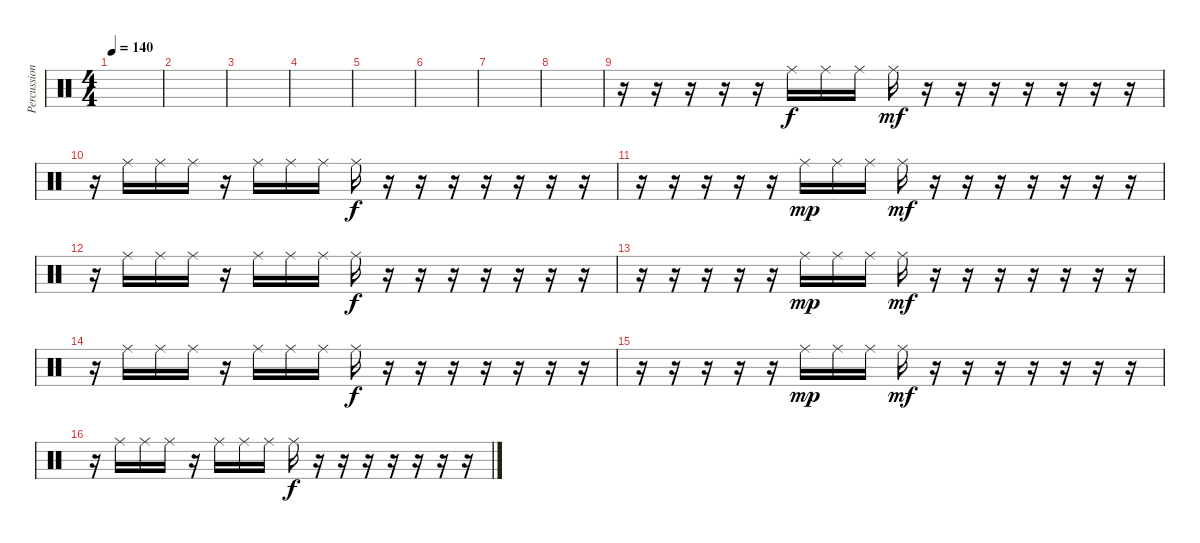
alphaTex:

\track ("Percussions" "Percussion") {instrument percussion}
\staff {score}
\articulation defaults
\ts (4 4)
\tempo 140
\clef neutral
\ks c
|
|
|
|
|
|
|
|
r.16 r.16 r.16 r.16 r.16 "Ride (middle)".16 "Ride (middle)".16 "Ride (middle)".16 "Ride (middle)".16{dy mf} r.16 r.16 r.16 r.16 r.16 r.16 r.16 |
r.16 "Ride (middle)".16 "Ride (middle)".16 "Ride (middle)".16 r.16 "Ride (middle)".16 "Ride (middle)".16 "Ride (middle)".16 "Ride (middle)".16{dy f} r.16 r.16 r.16 r.16 r.16 r.16 r.16 |
r.16 r.16 r.16 r.16 r.16 "Ride (middle)".16{dy mp} "Ride (middle)".16 "Ride (middle)".16 "Ride (middle)".16{dy mf} r.16 r.16 r.16 r.16 r.16 r.16 r.16 |
r.16 "Ride (middle)".16 "Ride (middle)".16 "Ride (middle)".16 r.16 "Ride (middle)".16 "Ride (middle)".16 "Ride (middle)".16 "Ride (middle)".16{dy f} r.16 r.16 r.16 r.16 r.16 r.16 r.16 |
r.16 r.16 r.16 r.16 r.16 "Ride (middle)".16{dy mp} "Ride (middle)".16 "Ride (middle)".16 "Ride (middle)".16{dy mf} r.16 r.16 r.16 r.16 r.16 r.16 r.16 |
r.16 "Ride (middle)".16 "Ride (middle)".16 "Ride (middle)".16 r.16 "Ride (middle)".16 "Ride (middle)".16 "Ride (middle)".16 "Ride (middle)".16{dy f} r.16 r.16 r.16 r.16 r.16 r.16 r.16 |
r.16 r.16 r.16 r.16 r.16 "Ride (middle)".16{dy mp} "Ride (middle)".16 "Ride (middle)".16 "Ride (middle)".16{dy mf} r.16 r.16 r.16 r.16 r.16 r.16 r.16 |
r.16 "Ride (middle)".16 "Ride (middle)".16 "Ride (middle)".16 r.16 "Ride (middle)".16 "Ride (middle)".16 "Ride (middle)".16 "Ride (middle)".16{dy f} r.16 r.16 r.16 r.16 r.16 r.16 r.16
